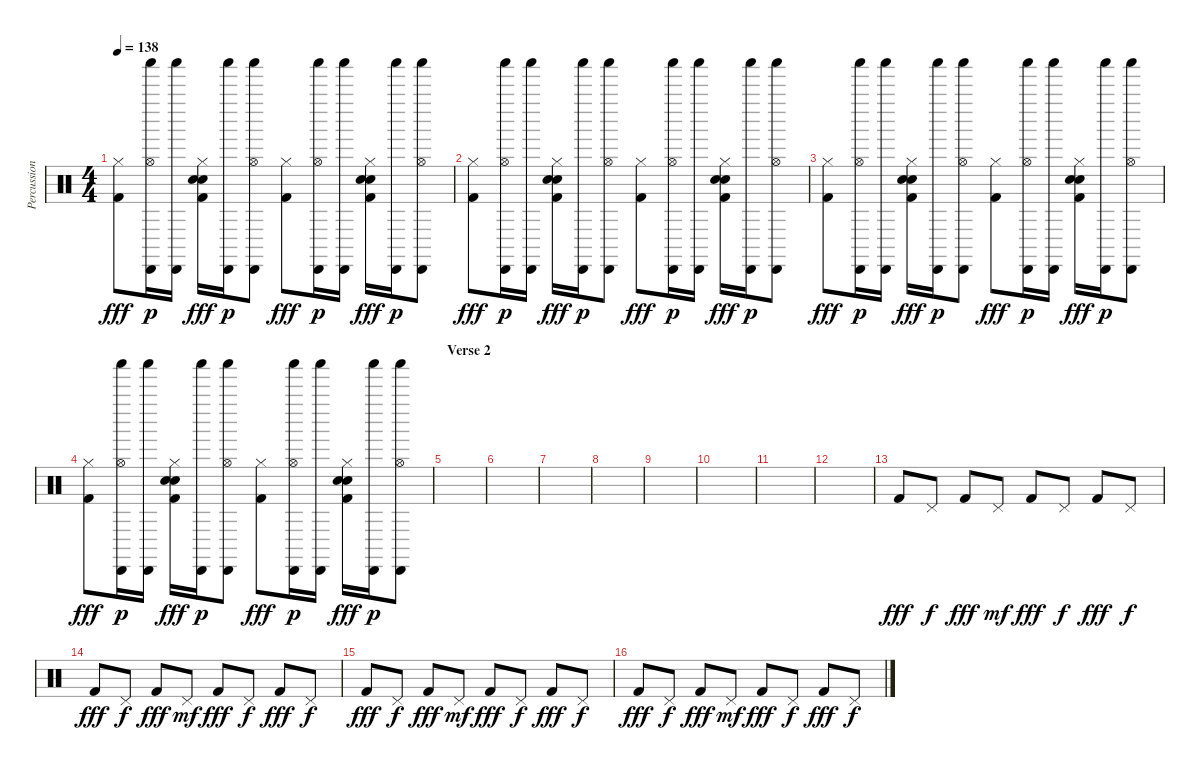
\track ("Percussion" "Percussion") {instrument percussion}
\staff {score}
\articulation defaults
\ts (4 4)
\tempo 138
\clef neutral
\ks c
("Hi-Hat (closed)" "Kick (hit) 2").8{dy fff} ("Cabasa (hit)" "Hi-Hat (open)" "Shaker (hit)").16{dy p} ("Cabasa (hit)" "Shaker (hit)").16 ("Hi-Hat (closed)" "Snare (hit) 2" "Hand Clap (hit)" "Kick (hit) 2").16{dy fff} ("Cabasa (hit)" "Shaker (hit)").16{dy p} ("Cabasa (hit)" "Hi-Hat (open)" "Shaker (hit)").8 ("Hi-Hat (closed)" "Kick (hit) 2").8{dy fff} ("Cabasa (hit)" "Hi-Hat (open)" "Shaker (hit)").16{dy p} ("Cabasa (hit)" "Shaker (hit)").16 ("Hi-Hat (closed)" "Snare (hit) 2" "Hand Clap (hit)" "Kick (hit) 2").16{dy fff} ("Cabasa (hit)" "Shaker (hit)").16{dy p} ("Cabasa (hit)" "Hi-Hat (open)" "Shaker (hit)").8 |
("Hi-Hat (closed)" "Kick (hit) 2").8{dy fff} ("Cabasa (hit)" "Hi-Hat (open)" "Shaker (hit)").16{dy p} ("Cabasa (hit)" "Shaker (hit)").16 ("Hi-Hat (closed)" "Snare (hit) 2" "Hand Clap (hit)" "Kick (hit) 2").16{dy fff} ("Cabasa (hit)" "Shaker (hit)").16{dy p} ("Cabasa (hit)" "Hi-Hat (open)" "Shaker (hit)").8 ("Hi-Hat (closed)" "Kick (hit) 2").8{dy fff} ("Cabasa (hit)" "Hi-Hat (open)" "Shaker (hit)").16{dy p} ("Cabasa (hit)" "Shaker (hit)").16 ("Hi-Hat (closed)" "Snare (hit) 2" "Hand Clap (hit)" "Kick (hit) 2").16{dy fff} ("Cabasa (hit)" "Shaker (hit)").16{dy p} ("Cabasa (hit)" "Hi-Hat (open)" "Shaker (hit)").8 |
("Hi-Hat (closed)" "Kick (hit) 2").8{dy fff} ("Cabasa (hit)" "Hi-Hat (open)" "Shaker (hit)").16{dy p} ("Cabasa (hit)" "Shaker (hit)").16 ("Hi-Hat (closed)" "Snare (hit) 2" "Hand Clap (hit)" "Kick (hit) 2").16{dy fff} ("Cabasa (hit)" "Shaker (hit)").16{dy p} ("Cabasa (hit)" "Hi-Hat (open)" "Shaker (hit)").8 ("Hi-Hat (closed)" "Kick (hit) 2").8{dy fff} ("Cabasa (hit)" "Hi-Hat (open)" "Shaker (hit)").16{dy p} ("Cabasa (hit)" "Shaker (hit)").16 ("Hi-Hat (closed)" "Snare (hit) 2" "Hand Clap (hit)" "Kick (hit) 2").16{dy fff} ("Cabasa (hit)" "Shaker (hit)").16{dy p} ("Cabasa (hit)" "Hi-Hat (open)" "Shaker (hit)").8 |
("Hi-Hat (closed)" "Kick (hit) 2").8{dy fff} ("Cabasa (hit)" "Hi-Hat (open)" "Shaker (hit)").16{dy p} ("Cabasa (hit)" "Shaker (hit)").16 ("Hi-Hat (closed)" "Snare (hit) 2" "Hand Clap (hit)" "Kick (hit) 2").16{dy fff} ("Cabasa (hit)" "Shaker (hit)").16{dy p} ("Cabasa (hit)" "Hi-Hat (open)" "Shaker (hit)").8 ("Hi-Hat (closed)" "Kick (hit) 2").8{dy fff} ("Cabasa (hit)" "Hi-Hat (open)" "Shaker (hit)").16{dy p} ("Cabasa (hit)" "Shaker (hit)").16 ("Hi-Hat (closed)" "Snare (hit) 2" "Hand Clap (hit)" "Kick (hit) 2").16{dy fff} ("Cabasa (hit)" "Shaker (hit)").16{dy p} ("Cabasa (hit)" "Hi-Hat (open)" "Shaker (hit)").8 |
\section ("" "Verse 2")
|
|
|
|
|
|
|
|
"Kick (hit) 2".8{dy fff} "Pedal Hi-Hat (hit)".8{dy f} "Kick (hit) 2".8{dy fff} "Pedal Hi-Hat (hit)".8{dy mf} "Kick (hit) 2".8{dy fff} "Pedal Hi-Hat (hit)".8{dy f} "Kick (hit) 2".8{dy fff} "Pedal Hi-Hat (hit)".8{dy f} |
"Kick (hit) 2".8{dy fff} "Pedal Hi-Hat (hit)".8{dy f} "Kick (hit) 2".8{dy fff} "Pedal Hi-Hat (hit)".8{dy mf} "Kick (hit) 2".8{dy fff} "Pedal Hi-Hat (hit)".8{dy f} "Kick (hit) 2".8{dy fff} "Pedal Hi-Hat (hit)".8{dy f} |
"Kick (hit) 2".8{dy fff} "Pedal Hi-Hat (hit)".8{dy f} "Kick (hit) 2".8{dy fff} "Pedal Hi-Hat (hit)".8{dy mf} "Kick (hit) 2".8{dy fff} "Pedal Hi-Hat (hit)".8{dy f} "Kick (hit) 2".8{dy fff} "Pedal Hi-Hat (hit)".8{dy f} |
"Kick (hit) 2".8{dy fff} "Pedal Hi-Hat (hit)".8{dy f} "Kick (hit) 2".8{dy fff} "Pedal Hi-Hat (hit)".8{dy mf} "Kick (hit) 2".8{dy fff} "Pedal Hi-Hat (hit)".8{dy f} "Kick (hit) 2".8{dy fff} "Pedal Hi-Hat (hit)".8{dy f}
